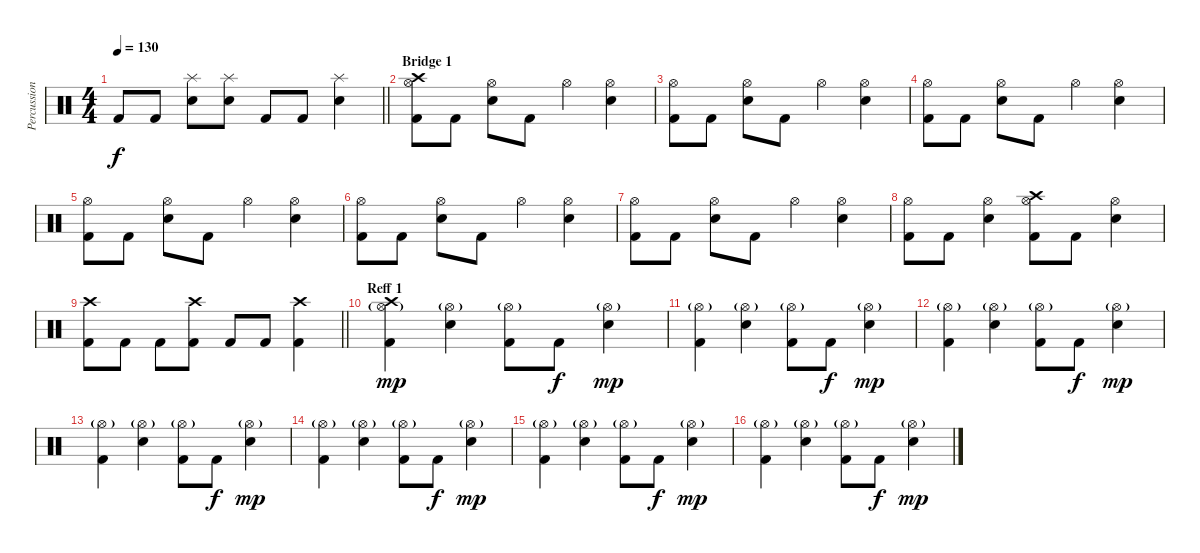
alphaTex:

\track ("Percussion 1" "Percussion") {instrument percussion}
\staff {score}
\articulation defaults
\ts (4 4)
\tempo 130
\clef neutral
\barLineRight lightlight
\ks c "Kick (hit) 2".8{dy f} "Kick (hit) 2".8
("Splash (hit)" "Electric Snare (hit)").8 ("Splash (hit)" "Electric Snare (hit)").8 "Kick (hit) 2".8 "Kick (hit) 2".8 ("Splash (hit)" "Electric Snare (hit)").4 |
\section ("" "Bridge 1")
("Hi-Hat (open)" "Crash high (hit)" "Kick (hit) 2").8 "Kick (hit) 2".8 ("Hi-Hat (open)" "Electric Snare (hit)").8 "Kick (hit) 2".8 "Hi-Hat (open)".4 ("Hi-Hat (open)" "Electric Snare (hit)").4 |
("Hi-Hat (open)" "Kick (hit) 2").8 "Kick (hit) 2".8 ("Hi-Hat (open)" "Electric Snare (hit)").8 "Kick (hit) 2".8 "Hi-Hat (open)".4 ("Hi-Hat (open)" "Electric Snare (hit)").4 |
("Hi-Hat (open)" "Kick (hit) 2").8 "Kick (hit) 2".8 ("Hi-Hat (open)" "Electric Snare (hit)").8 "Kick (hit) 2".8 "Hi-Hat (open)".4 ("Hi-Hat (open)" "Electric Snare (hit)").4 |
("Hi-Hat (open)" "Kick (hit) 2").8 "Kick (hit) 2".8 ("Hi-Hat (open)" "Electric Snare (hit)").8 "Kick (hit) 2".8 "Hi-Hat (open)".4 ("Hi-Hat (open)" "Electric Snare (hit)").4 |
("Hi-Hat (open)" "Kick (hit) 2").8 "Kick (hit) 2".8 ("Hi-Hat (open)" "Electric Snare (hit)").8 "Kick (hit) 2".8 "Hi-Hat (open)".4 ("Hi-Hat (open)" "Electric Snare (hit)").4 |
("Hi-Hat (open)" "Kick (hit) 2").8 "Kick (hit) 2".8 ("Hi-Hat (open)" "Electric Snare (hit)").8 "Kick (hit) 2".8 "Hi-Hat (open)".4 ("Hi-Hat (open)" "Electric Snare (hit)").4 |
("Hi-Hat (open)" "Kick (hit) 2").8 "Kick (hit) 2".8 ("Hi-Hat (open)" "Electric Snare (hit)").4 ("Hi-Hat (open)" "Crash high (hit)" "Kick (hit) 2").8 "Kick (hit) 2".8 ("Hi-Hat (open)" "Electric Snare (hit)").4 |
\barLineRight lightlight
("Crash high (hit)" "Kick (hit) 2").8 "Kick (hit) 2".8 "Kick (hit) 2".8 ("Crash high (hit)" "Kick (hit) 2").8 "Kick (hit) 2".8 "Kick (hit) 2".8 ("Crash high (hit)" "Kick (hit) 2").4 |
\section ("" "Reff 1")
("Hi-Hat (open)"{g} "Crash high (hit)" "Kick (hit) 2").4{dy mp} ("Hi-Hat (open)"{g} "Electric Snare (hit)").4 ("Hi-Hat (open)"{g} "Kick (hit) 2").8 "Kick (hit) 2".8{dy f} ("Hi-Hat (open)"{g} "Electric Snare (hit)").4{dy mp} |
("Hi-Hat (open)"{g} "Kick (hit) 2").4 ("Hi-Hat (open)"{g} "Electric Snare (hit)").4 ("Hi-Hat (open)"{g} "Kick (hit) 2").8 "Kick (hit) 2".8{dy f} ("Hi-Hat (open)"{g} "Electric Snare (hit)").4{dy mp} |
("Hi-Hat (open)"{g} "Kick (hit) 2").4 ("Hi-Hat (open)"{g} "Electric Snare (hit)").4 ("Hi-Hat (open)"{g} "Kick (hit) 2").8 "Kick (hit) 2".8{dy f} ("Hi-Hat (open)"{g} "Electric Snare (hit)").4{dy mp} |
("Hi-Hat (open)"{g} "Kick (hit) 2").4 ("Hi-Hat (open)"{g} "Electric Snare (hit)").4 ("Hi-Hat (open)"{g} "Kick (hit) 2").8 "Kick (hit) 2".8{dy f} ("Hi-Hat (open)"{g} "Electric Snare (hit)").4{dy mp} |
("Hi-Hat (open)"{g} "Kick (hit) 2").4 ("Hi-Hat (open)"{g} "Electric Snare (hit)").4 ("Hi-Hat (open)"{g} "Kick (hit) 2").8 "Kick (hit) 2".8{dy f} ("Hi-Hat (open)"{g} "Electric Snare (hit)").4{dy mp} |
("Hi-Hat (open)"{g} "Kick (hit) 2").4 ("Hi-Hat (open)"{g} "Electric Snare (hit)").4 ("Hi-Hat (open)"{g} "Kick (hit) 2").8 "Kick (hit) 2".8{dy f} ("Hi-Hat (open)"{g} "Electric Snare (hit)").4{dy mp} |
("Hi-Hat (open)"{g} "Kick (hit) 2").4 ("Hi-Hat (open)"{g} "Electric Snare (hit)").4 ("Hi-Hat (open)"{g} "Kick (hit) 2").8 "Kick (hit) 2".8{dy f} ("Hi-Hat (open)"{g} "Electric Snare (hit)").4{dy mp}
